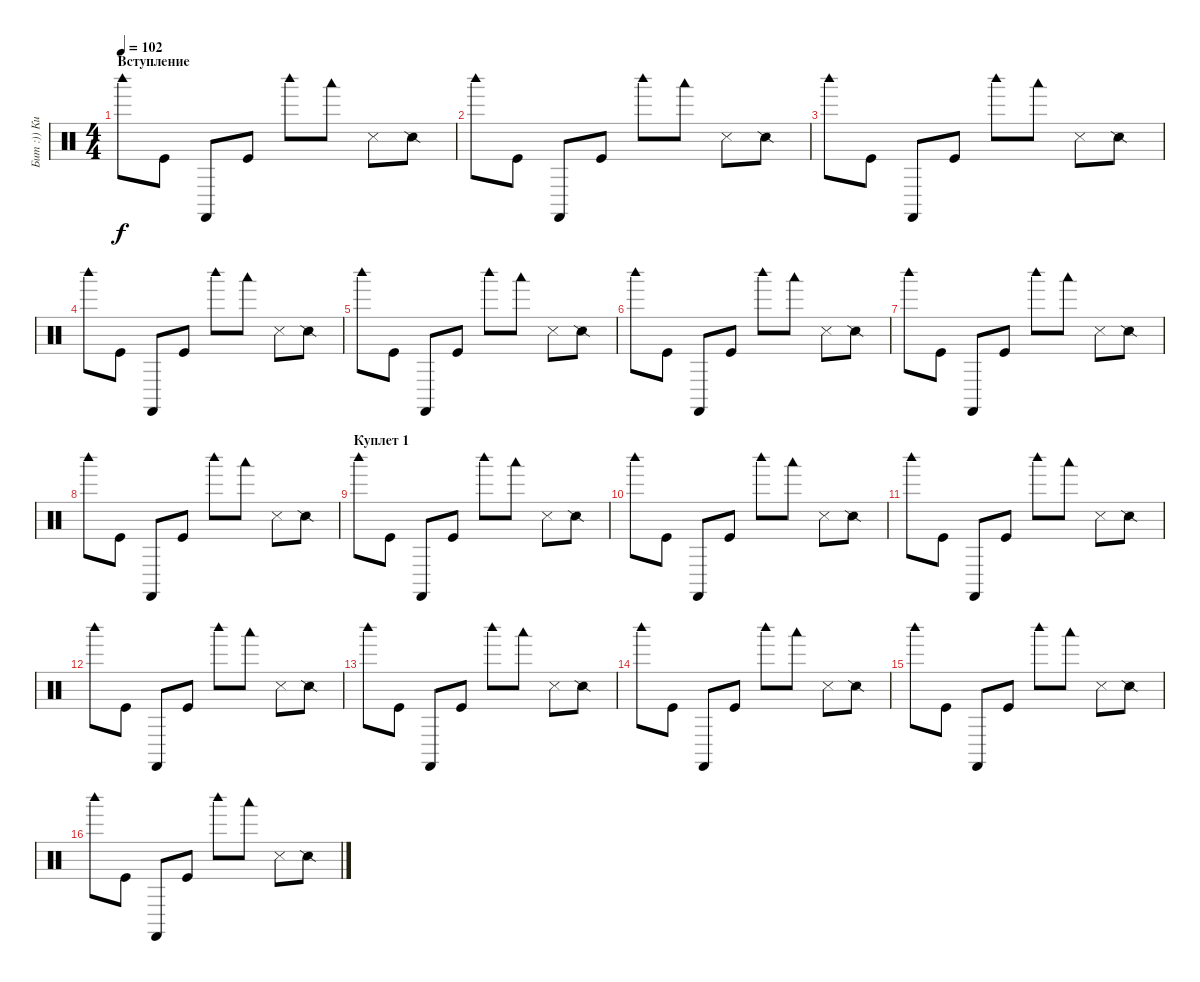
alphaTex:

\track ("Бит :)) Кита" "Бит :)) Ки") {instrument percussion}
\staff {score}
\articulation defaults
\ts (4 4)
\section ("" "Вступление")
\tempo 102
\clef neutral
\ks c "Woodblock high (hit)".8{dy f} "Kick (hit)".8 "Castanets (hit)".8 "Kick (hit)".8 "Woodblock high (hit)".8 "Woodblock low (hit)".8 "Snare (side stick) 3".8 "Snare (side stick) 2".8
|
"Woodblock high (hit)".8 "Kick (hit)".8 "Castanets (hit)".8 "Kick (hit)".8 "Woodblock high (hit)".8 "Woodblock low (hit)".8 "Snare (side stick) 3".8 "Snare (side stick) 2".8 |
"Woodblock high (hit)".8 "Kick (hit)".8 "Castanets (hit)".8 "Kick (hit)".8 "Woodblock high (hit)".8 "Woodblock low (hit)".8 "Snare (side stick) 3".8 "Snare (side stick) 2".8 |
"Woodblock high (hit)".8 "Kick (hit)".8 "Castanets (hit)".8 "Kick (hit)".8 "Woodblock high (hit)".8 "Woodblock low (hit)".8 "Snare (side stick) 3".8 "Snare (side stick) 2".8 |
"Woodblock high (hit)".8 "Kick (hit)".8 "Castanets (hit)".8 "Kick (hit)".8 "Woodblock high (hit)".8 "Woodblock low (hit)".8 "Snare (side stick) 3".8 "Snare (side stick) 2".8 |
"Woodblock high (hit)".8 "Kick (hit)".8 "Castanets (hit)".8 "Kick (hit)".8 "Woodblock high (hit)".8 "Woodblock low (hit)".8 "Snare (side stick) 3".8 "Snare (side stick) 2".8 |
"Woodblock high (hit)".8 "Kick (hit)".8 "Castanets (hit)".8 "Kick (hit)".8 "Woodblock high (hit)".8 "Woodblock low (hit)".8 "Snare (side stick) 3".8 "Snare (side stick) 2".8 |
"Woodblock high (hit)".8 "Kick (hit)".8 "Castanets (hit)".8 "Kick (hit)".8 "Woodblock high (hit)".8 "Woodblock low (hit)".8 "Snare (side stick) 3".8 "Snare (side stick) 2".8 |
\section ("" "Куплет 1")
"Woodblock high (hit)".8 "Kick (hit)".8 "Castanets (hit)".8 "Kick (hit)".8 "Woodblock high (hit)".8 "Woodblock low (hit)".8 "Snare (side stick) 3".8 "Snare (side stick) 2".8 |
"Woodblock high (hit)".8 "Kick (hit)".8 "Castanets (hit)".8 "Kick (hit)".8 "Woodblock high (hit)".8 "Woodblock low (hit)".8 "Snare (side stick) 3".8 "Snare (side stick) 2".8 |
"Woodblock high (hit)".8 "Kick (hit)".8 "Castanets (hit)".8 "Kick (hit)".8 "Woodblock high (hit)".8 "Woodblock low (hit)".8 "Snare (side stick) 3".8 "Snare (side stick) 2".8 |
"Woodblock high (hit)".8 "Kick (hit)".8 "Castanets (hit)".8 "Kick (hit)".8 "Woodblock high (hit)".8 "Woodblock low (hit)".8 "Snare (side stick) 3".8 "Snare (side stick) 2".8 |
"Woodblock high (hit)".8 "Kick (hit)".8 "Castanets (hit)".8 "Kick (hit)".8 "Woodblock high (hit)".8 "Woodblock low (hit)".8 "Snare (side stick) 3".8 "Snare (side stick) 2".8 |
"Woodblock high (hit)".8 "Kick (hit)".8 "Castanets (hit)".8 "Kick (hit)".8 "Woodblock high (hit)".8 "Woodblock low (hit)".8 "Snare (side stick) 3".8 "Snare (side stick) 2".8 |
"Woodblock high (hit)".8 "Kick (hit)".8 "Castanets (hit)".8 "Kick (hit)".8 "Woodblock high (hit)".8 "Woodblock low (hit)".8 "Snare (side stick) 3".8 "Snare (side stick) 2".8 |
"Woodblock high (hit)".8 "Kick (hit)".8 "Castanets (hit)".8 "Kick (hit)".8 "Woodblock high (hit)".8 "Woodblock low (hit)".8 "Snare (side stick) 3".8 "Snare (side stick) 2".8
